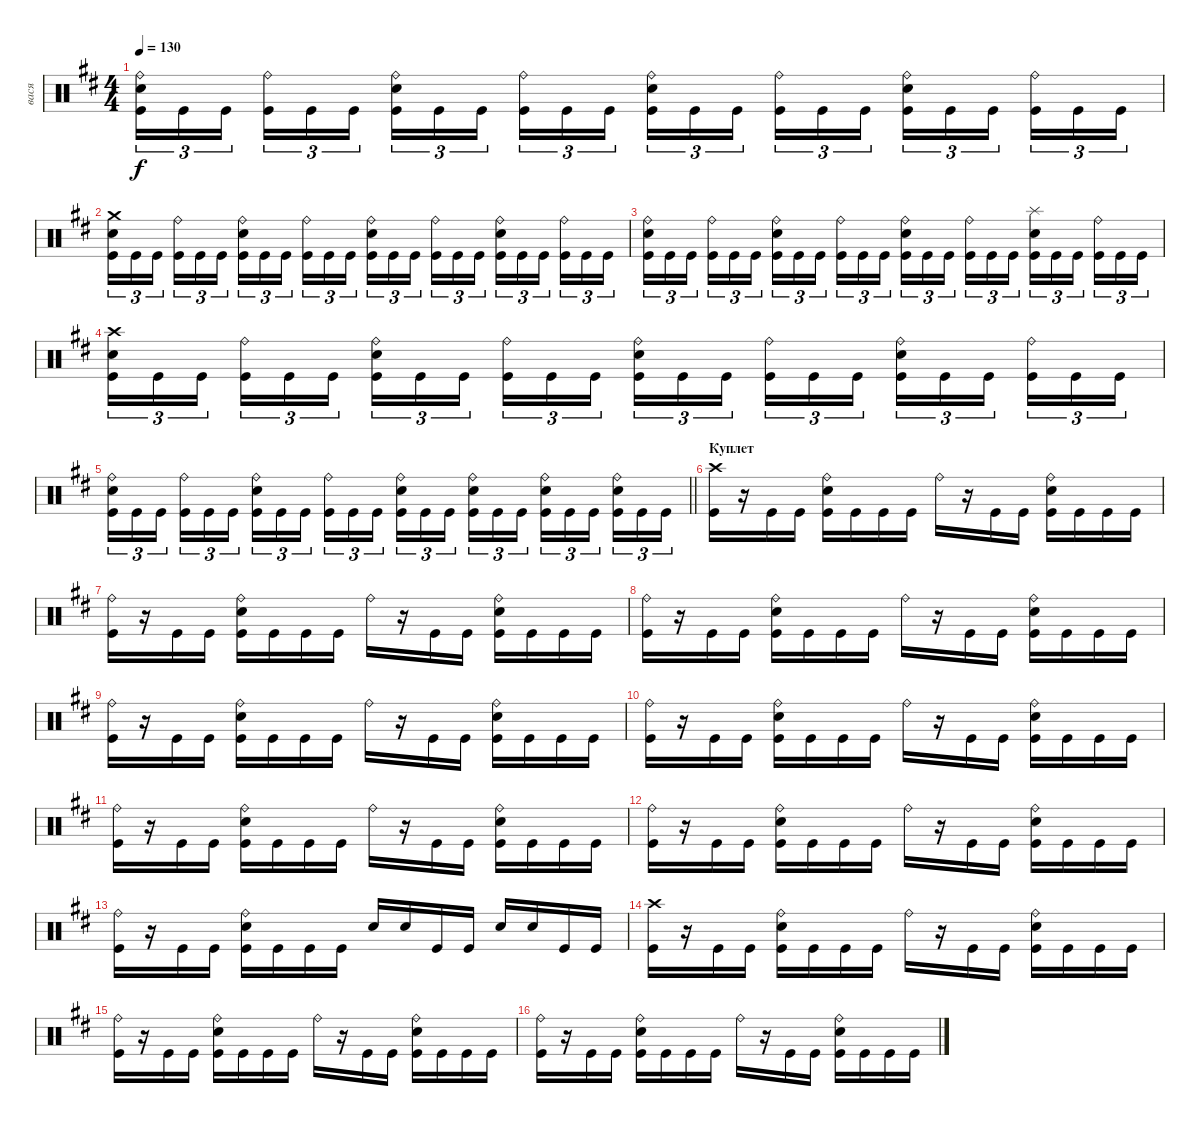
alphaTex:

\track ("вася" "вася") {instrument percussion}
\staff {score}
\articulation defaults
\ts (4 4)
\tempo 130
\clef neutral
\ks bminor
("Ride (bell)" "Electric Snare (hit)" "Kick (hit)").16{tu (3 2) dy f} "Kick (hit)".16{tu (3 2)} "Kick (hit)".16{tu (3 2) beam splitsecondary} ("Ride (bell)" "Kick (hit)").16{tu (3 2)} "Kick (hit)".16{tu (3 2)} "Kick (hit)".16{tu (3 2)} ("Ride (bell)" "Electric Snare (hit)" "Kick (hit)").16{tu (3 2)} "Kick (hit)".16{tu (3 2)} "Kick (hit)".16{tu (3 2) beam splitsecondary} ("Ride (bell)" "Kick (hit)").16{tu (3 2)} "Kick (hit)".16{tu (3 2)} "Kick (hit)".16{tu (3 2)} ("Ride (bell)" "Electric Snare (hit)" "Kick (hit)").16{tu (3 2)} "Kick (hit)".16{tu (3 2)} "Kick (hit)".16{tu (3 2) beam splitsecondary} ("Ride (bell)" "Kick (hit)").16{tu (3 2)} "Kick (hit)".16{tu (3 2)} "Kick (hit)".16{tu (3 2)} ("Ride (bell)" "Electric Snare (hit)" "Kick (hit)").16{tu (3 2)} "Kick (hit)".16{tu (3 2)} "Kick (hit)".16{tu (3 2) beam splitsecondary} ("Ride (bell)" "Kick (hit)").16{tu (3 2)} "Kick (hit)".16{tu (3 2)} "Kick (hit)".16{tu (3 2)} |
("Crash medium (hit)" "Electric Snare (hit)" "Kick (hit)").16{tu (3 2)} "Kick (hit)".16{tu (3 2)} "Kick (hit)".16{tu (3 2) beam splitsecondary} ("Ride (bell)" "Kick (hit)").16{tu (3 2)} "Kick (hit)".16{tu (3 2)} "Kick (hit)".16{tu (3 2)} ("Ride (bell)" "Electric Snare (hit)" "Kick (hit)").16{tu (3 2)} "Kick (hit)".16{tu (3 2)} "Kick (hit)".16{tu (3 2) beam splitsecondary} ("Ride (bell)" "Kick (hit)").16{tu (3 2)} "Kick (hit)".16{tu (3 2)} "Kick (hit)".16{tu (3 2)} ("Ride (bell)" "Electric Snare (hit)" "Kick (hit)").16{tu (3 2)} "Kick (hit)".16{tu (3 2)} "Kick (hit)".16{tu (3 2) beam splitsecondary} ("Ride (bell)" "Kick (hit)").16{tu (3 2)} "Kick (hit)".16{tu (3 2)} "Kick (hit)".16{tu (3 2)} ("Ride (bell)" "Electric Snare (hit)" "Kick (hit)").16{tu (3 2)} "Kick (hit)".16{tu (3 2)} "Kick (hit)".16{tu (3 2) beam splitsecondary} ("Ride (bell)" "Kick (hit)").16{tu (3 2)} "Kick (hit)".16{tu (3 2)} "Kick (hit)".16{tu (3 2)} |
("Ride (bell)" "Electric Snare (hit)" "Kick (hit)").16{tu (3 2)} "Kick (hit)".16{tu (3 2)} "Kick (hit)".16{tu (3 2) beam splitsecondary} ("Ride (bell)" "Kick (hit)").16{tu (3 2)} "Kick (hit)".16{tu (3 2)} "Kick (hit)".16{tu (3 2)} ("Ride (bell)" "Electric Snare (hit)" "Kick (hit)").16{tu (3 2)} "Kick (hit)".16{tu (3 2)} "Kick (hit)".16{tu (3 2) beam splitsecondary} ("Ride (bell)" "Kick (hit)").16{tu (3 2)} "Kick (hit)".16{tu (3 2)} "Kick (hit)".16{tu (3 2)} ("Ride (bell)" "Electric Snare (hit)" "Kick (hit)").16{tu (3 2)} "Kick (hit)".16{tu (3 2)} "Kick (hit)".16{tu (3 2) beam splitsecondary} ("Ride (bell)" "Kick (hit)").16{tu (3 2)} "Kick (hit)".16{tu (3 2)} "Kick (hit)".16{tu (3 2)} ("Splash (hit)" "Electric Snare (hit)" "Kick (hit)").16{tu (3 2)} "Kick (hit)".16{tu (3 2)} "Kick (hit)".16{tu (3 2) beam splitsecondary} ("Ride (bell)" "Kick (hit)").16{tu (3 2)} "Kick (hit)".16{tu (3 2)} "Kick (hit)".16{tu (3 2)} |
("Crash high (hit)" "Electric Snare (hit)" "Kick (hit)").16{tu (3 2)} "Kick (hit)".16{tu (3 2)} "Kick (hit)".16{tu (3 2) beam splitsecondary} ("Ride (bell)" "Kick (hit)").16{tu (3 2)} "Kick (hit)".16{tu (3 2)} "Kick (hit)".16{tu (3 2)} ("Ride (bell)" "Electric Snare (hit)" "Kick (hit)").16{tu (3 2)} "Kick (hit)".16{tu (3 2)} "Kick (hit)".16{tu (3 2) beam splitsecondary} ("Ride (bell)" "Kick (hit)").16{tu (3 2)} "Kick (hit)".16{tu (3 2)} "Kick (hit)".16{tu (3 2)} ("Ride (bell)" "Electric Snare (hit)" "Kick (hit)").16{tu (3 2)} "Kick (hit)".16{tu (3 2)} "Kick (hit)".16{tu (3 2) beam splitsecondary} ("Ride (bell)" "Kick (hit)").16{tu (3 2)} "Kick (hit)".16{tu (3 2)} "Kick (hit)".16{tu (3 2)} ("Ride (bell)" "Electric Snare (hit)" "Kick (hit)").16{tu (3 2)} "Kick (hit)".16{tu (3 2)} "Kick (hit)".16{tu (3 2) beam splitsecondary} ("Ride (bell)" "Kick (hit)").16{tu (3 2)} "Kick (hit)".16{tu (3 2)} "Kick (hit)".16{tu (3 2)} |
\barLineRight lightlight
("Ride (bell)" "Electric Snare (hit)" "Kick (hit)").16{tu (3 2)} "Kick (hit)".16{tu (3 2)} "Kick (hit)".16{tu (3 2) beam splitsecondary} ("Ride (bell)" "Kick (hit)").16{tu (3 2)} "Kick (hit)".16{tu (3 2)} "Kick (hit)".16{tu (3 2)} ("Ride (bell)" "Electric Snare (hit)" "Kick (hit)").16{tu (3 2)} "Kick (hit)".16{tu (3 2)} "Kick (hit)".16{tu (3 2) beam splitsecondary} ("Ride (bell)" "Kick (hit)").16{tu (3 2)} "Kick (hit)".16{tu (3 2)} "Kick (hit)".16{tu (3 2)} ("Ride (bell)" "Electric Snare (hit)" "Kick (hit)").16{tu (3 2)} "Kick (hit)".16{tu (3 2)} "Kick (hit)".16{tu (3 2) beam splitsecondary} ("Ride (bell)" "Electric Snare (hit)" "Kick (hit)").16{tu (3 2)} "Kick (hit)".16{tu (3 2)} "Kick (hit)".16{tu (3 2)} ("Ride (bell)" "Electric Snare (hit)" "Kick (hit)").16{tu (3 2)} "Kick (hit)".16{tu (3 2)} "Kick (hit)".16{tu (3 2) beam splitsecondary} ("Ride (bell)" "Electric Snare (hit)" "Kick (hit)").16{tu (3 2)} "Kick (hit)".16{tu (3 2)} "Kick (hit)".16{tu (3 2)} |
\section ("" "Куплет")
("Crash high (hit)" "Kick (hit)").16 r.16 "Kick (hit)".16 "Kick (hit)".16 ("Ride (bell)" "Electric Snare (hit)" "Kick (hit)").16 "Kick (hit)".16 "Kick (hit)".16 "Kick (hit)".16 "Ride (bell)".16 r.16 "Kick (hit)".16 "Kick (hit)".16 ("Ride (bell)" "Electric Snare (hit)" "Kick (hit)").16 "Kick (hit)".16 "Kick (hit)".16 "Kick (hit)".16 |
("Ride (bell)" "Kick (hit)").16 r.16 "Kick (hit)".16 "Kick (hit)".16 ("Ride (bell)" "Electric Snare (hit)" "Kick (hit)").16 "Kick (hit)".16 "Kick (hit)".16 "Kick (hit)".16 "Ride (bell)".16 r.16 "Kick (hit)".16 "Kick (hit)".16 ("Ride (bell)" "Electric Snare (hit)" "Kick (hit)").16 "Kick (hit)".16 "Kick (hit)".16 "Kick (hit)".16 |
("Ride (bell)" "Kick (hit)").16 r.16 "Kick (hit)".16 "Kick (hit)".16 ("Ride (bell)" "Electric Snare (hit)" "Kick (hit)").16 "Kick (hit)".16 "Kick (hit)".16 "Kick (hit)".16 "Ride (bell)".16 r.16 "Kick (hit)".16 "Kick (hit)".16 ("Ride (bell)" "Electric Snare (hit)" "Kick (hit)").16 "Kick (hit)".16 "Kick (hit)".16 "Kick (hit)".16 |
("Ride (bell)" "Kick (hit)").16 r.16 "Kick (hit)".16 "Kick (hit)".16 ("Ride (bell)" "Electric Snare (hit)" "Kick (hit)").16 "Kick (hit)".16 "Kick (hit)".16 "Kick (hit)".16 "Ride (bell)".16 r.16 "Kick (hit)".16 "Kick (hit)".16 ("Ride (bell)" "Electric Snare (hit)" "Kick (hit)").16 "Kick (hit)".16 "Kick (hit)".16 "Kick (hit)".16 |
("Ride (bell)" "Kick (hit)").16 r.16 "Kick (hit)".16 "Kick (hit)".16 ("Ride (bell)" "Electric Snare (hit)" "Kick (hit)").16 "Kick (hit)".16 "Kick (hit)".16 "Kick (hit)".16 "Ride (bell)".16 r.16 "Kick (hit)".16 "Kick (hit)".16 ("Ride (bell)" "Electric Snare (hit)" "Kick (hit)").16 "Kick (hit)".16 "Kick (hit)".16 "Kick (hit)".16 |
("Ride (bell)" "Kick (hit)").16 r.16 "Kick (hit)".16 "Kick (hit)".16 ("Ride (bell)" "Electric Snare (hit)" "Kick (hit)").16 "Kick (hit)".16 "Kick (hit)".16 "Kick (hit)".16 "Ride (bell)".16 r.16 "Kick (hit)".16 "Kick (hit)".16 ("Ride (bell)" "Electric Snare (hit)" "Kick (hit)").16 "Kick (hit)".16 "Kick (hit)".16 "Kick (hit)".16 |
("Ride (bell)" "Kick (hit)").16 r.16 "Kick (hit)".16 "Kick (hit)".16 ("Ride (bell)" "Electric Snare (hit)" "Kick (hit)").16 "Kick (hit)".16 "Kick (hit)".16 "Kick (hit)".16 "Ride (bell)".16 r.16 "Kick (hit)".16 "Kick (hit)".16 ("Ride (bell)" "Electric Snare (hit)" "Kick (hit)").16 "Kick (hit)".16 "Kick (hit)".16 "Kick (hit)".16 |
("Ride (bell)" "Kick (hit)").16 r.16 "Kick (hit)".16 "Kick (hit)".16 ("Ride (bell)" "Electric Snare (hit)" "Kick (hit)").16 "Kick (hit)".16 "Kick (hit)".16 "Kick (hit)".16 "Electric Snare (hit)".16 "Electric Snare (hit)".16 "Kick (hit)".16 "Kick (hit)".16 "Electric Snare (hit)".16 "Electric Snare (hit)".16 "Kick (hit)".16 "Kick (hit)".16 |
("Crash high (hit)" "Kick (hit)").16 r.16 "Kick (hit)".16 "Kick (hit)".16 ("Ride (bell)" "Electric Snare (hit)" "Kick (hit)").16 "Kick (hit)".16 "Kick (hit)".16 "Kick (hit)".16 "Ride (bell)".16 r.16 "Kick (hit)".16 "Kick (hit)".16 ("Ride (bell)" "Electric Snare (hit)" "Kick (hit)").16 "Kick (hit)".16 "Kick (hit)".16 "Kick (hit)".16 |
("Ride (bell)" "Kick (hit)").16 r.16 "Kick (hit)".16 "Kick (hit)".16 ("Ride (bell)" "Electric Snare (hit)" "Kick (hit)").16 "Kick (hit)".16 "Kick (hit)".16 "Kick (hit)".16 "Ride (bell)".16 r.16 "Kick (hit)".16 "Kick (hit)".16 ("Ride (bell)" "Electric Snare (hit)" "Kick (hit)").16 "Kick (hit)".16 "Kick (hit)".16 "Kick (hit)".16 |
("Ride (bell)" "Kick (hit)").16 r.16 "Kick (hit)".16 "Kick (hit)".16 ("Ride (bell)" "Electric Snare (hit)" "Kick (hit)").16 "Kick (hit)".16 "Kick (hit)".16 "Kick (hit)".16 "Ride (bell)".16 r.16 "Kick (hit)".16 "Kick (hit)".16 ("Ride (bell)" "Electric Snare (hit)" "Kick (hit)").16 "Kick (hit)".16 "Kick (hit)".16 "Kick (hit)".16
